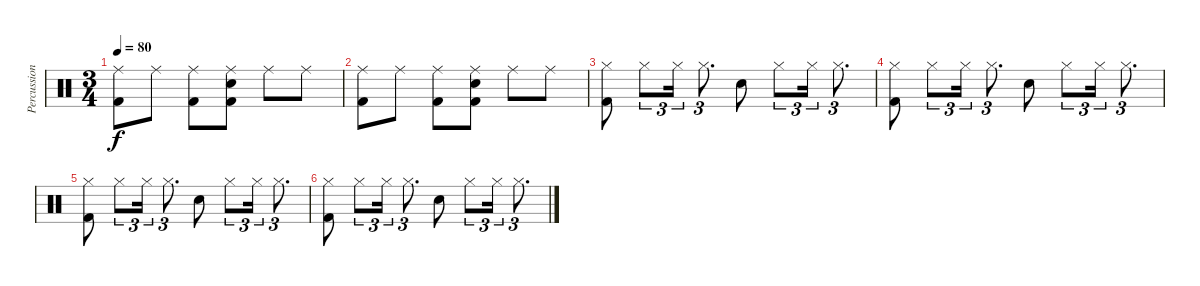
\track ("Percussion" "Percussion") {instrument percussion}
\staff {score}
\articulation defaults
\ts (3 4)
\tempo 80
\clef neutral
\ks c
("Ride (middle)" "Kick (hit) 2").8{dy f} "Ride (middle)".8 ("Ride (middle)" "Kick (hit) 2").8 ("Ride (middle)" "Snare (hit) 2" "Kick (hit) 2").8 "Ride (middle)".8 "Ride (middle)".8 |
("Ride (middle)" "Kick (hit) 2").8 "Ride (middle)".8 ("Ride (middle)" "Kick (hit) 2").8 ("Ride (middle)" "Snare (hit) 2" "Kick (hit) 2").8 "Ride (middle)".8 "Ride (middle)".8 |
("Hi-Hat (closed)" "Kick (hit) 2").8 "Hi-Hat (closed)".8{tu (3 2)} "Hi-Hat (closed)".16{tu (3 2)} "Hi-Hat (closed)".8{d tu (3 2)} "Snare (hit) 2".8 "Hi-Hat (closed)".8{tu (3 2)} "Hi-Hat (closed)".16{tu (3 2)} "Hi-Hat (closed)".8{d tu (3 2)} |
("Hi-Hat (closed)" "Kick (hit) 2").8 "Hi-Hat (closed)".8{tu (3 2)} "Hi-Hat (closed)".16{tu (3 2)} "Hi-Hat (closed)".8{d tu (3 2)} "Snare (hit) 2".8 "Hi-Hat (closed)".8{tu (3 2)} "Hi-Hat (closed)".16{tu (3 2)} "Hi-Hat (closed)".8{d tu (3 2)} |
("Hi-Hat (closed)" "Kick (hit) 2").8 "Hi-Hat (closed)".8{tu (3 2)} "Hi-Hat (closed)".16{tu (3 2)} "Hi-Hat (closed)".8{d tu (3 2)} "Snare (hit) 2".8 "Hi-Hat (closed)".8{tu (3 2)} "Hi-Hat (closed)".16{tu (3 2)} "Hi-Hat (closed)".8{d tu (3 2)} |
("Hi-Hat (closed)" "Kick (hit) 2").8 "Hi-Hat (closed)".8{tu (3 2)} "Hi-Hat (closed)".16{tu (3 2)} "Hi-Hat (closed)".8{d tu (3 2)} "Snare (hit) 2".8 "Hi-Hat (closed)".8{tu (3 2)} "Hi-Hat (closed)".16{tu (3 2)} "Hi-Hat (closed)".8{d tu (3 2)}
